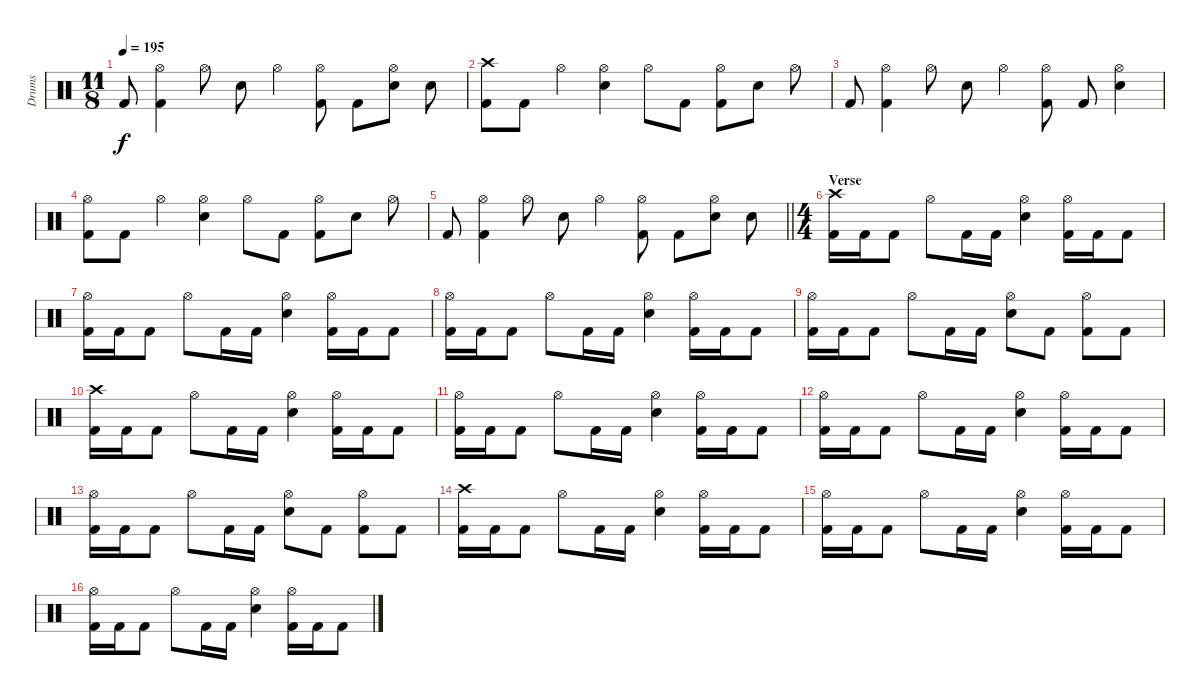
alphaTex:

\track ("Drums" "Drums") {instrument percussion}
\staff {score}
\articulation defaults
\ts (11 8)
\tempo 195
\clef neutral
\ks c "Kick (hit) 2".8{dy f}
("Hi-Hat (open)" "Kick (hit) 2").4 "Hi-Hat (open)".8 "Electric Snare (hit)".8 "Hi-Hat (open)".4 ("Hi-Hat (open)" "Kick (hit) 2").8 "Kick (hit) 2".8 ("Hi-Hat (open)" "Electric Snare (hit)").8 "Electric Snare (hit)".8 |
("Crash high (hit)" "Kick (hit) 2").8 "Kick (hit) 2".8 "Hi-Hat (open)".4 ("Hi-Hat (open)" "Electric Snare (hit)").4 "Hi-Hat (open)".8 "Kick (hit) 2".8 ("Hi-Hat (open)" "Kick (hit) 2").8 "Electric Snare (hit)".8 "Hi-Hat (open)".8 |
"Kick (hit) 2".8 ("Hi-Hat (open)" "Kick (hit) 2").4 "Hi-Hat (open)".8 "Electric Snare (hit)".8 "Hi-Hat (open)".4 ("Hi-Hat (open)" "Kick (hit) 2").8 "Kick (hit) 2".8 ("Hi-Hat (open)" "Electric Snare (hit)").4 |
("Hi-Hat (open)" "Kick (hit) 2").8 "Kick (hit) 2".8 "Hi-Hat (open)".4 ("Hi-Hat (open)" "Electric Snare (hit)").4 "Hi-Hat (open)".8 "Kick (hit) 2".8 ("Hi-Hat (open)" "Kick (hit) 2").8 "Electric Snare (hit)".8 "Hi-Hat (open)".8 |
\barLineRight lightlight "Kick (hit) 2".8
("Hi-Hat (open)" "Kick (hit) 2").4 "Hi-Hat (open)".8 "Electric Snare (hit)".8 "Hi-Hat (open)".4 ("Hi-Hat (open)" "Kick (hit) 2").8 "Kick (hit) 2".8 ("Hi-Hat (open)" "Electric Snare (hit)").8 "Electric Snare (hit)".8 |
\ts (4 4)
\section ("" "Verse")
("Crash high (hit)" "Kick (hit) 2").16 "Kick (hit) 2".16 "Kick (hit) 2".8 "Hi-Hat (open)".8 "Kick (hit) 2".16 "Kick (hit) 2".16 ("Hi-Hat (open)" "Electric Snare (hit)").4 ("Hi-Hat (open)" "Kick (hit) 2").16 "Kick (hit) 2".16 "Kick (hit) 2".8 |
("Hi-Hat (open)" "Kick (hit) 2").16 "Kick (hit) 2".16 "Kick (hit) 2".8 "Hi-Hat (open)".8 "Kick (hit) 2".16 "Kick (hit) 2".16 ("Hi-Hat (open)" "Electric Snare (hit)").4 ("Hi-Hat (open)" "Kick (hit) 2").16 "Kick (hit) 2".16 "Kick (hit) 2".8 |
("Hi-Hat (open)" "Kick (hit) 2").16 "Kick (hit) 2".16 "Kick (hit) 2".8 "Hi-Hat (open)".8 "Kick (hit) 2".16 "Kick (hit) 2".16 ("Hi-Hat (open)" "Electric Snare (hit)").4 ("Hi-Hat (open)" "Kick (hit) 2").16 "Kick (hit) 2".16 "Kick (hit) 2".8 |
("Hi-Hat (open)" "Kick (hit) 2").16 "Kick (hit) 2".16 "Kick (hit) 2".8 "Hi-Hat (open)".8 "Kick (hit) 2".16 "Kick (hit) 2".16 ("Hi-Hat (open)" "Electric Snare (hit)").8 "Kick (hit) 2".8 ("Hi-Hat (open)" "Kick (hit) 2").8 "Kick (hit) 2".8 |
("Crash high (hit)" "Kick (hit) 2").16 "Kick (hit) 2".16 "Kick (hit) 2".8 "Hi-Hat (open)".8 "Kick (hit) 2".16 "Kick (hit) 2".16 ("Hi-Hat (open)" "Electric Snare (hit)").4 ("Hi-Hat (open)" "Kick (hit) 2").16 "Kick (hit) 2".16 "Kick (hit) 2".8 |
("Hi-Hat (open)" "Kick (hit) 2").16 "Kick (hit) 2".16 "Kick (hit) 2".8 "Hi-Hat (open)".8 "Kick (hit) 2".16 "Kick (hit) 2".16 ("Hi-Hat (open)" "Electric Snare (hit)").4 ("Hi-Hat (open)" "Kick (hit) 2").16 "Kick (hit) 2".16 "Kick (hit) 2".8 |
("Hi-Hat (open)" "Kick (hit) 2").16 "Kick (hit) 2".16 "Kick (hit) 2".8 "Hi-Hat (open)".8 "Kick (hit) 2".16 "Kick (hit) 2".16 ("Hi-Hat (open)" "Electric Snare (hit)").4 ("Hi-Hat (open)" "Kick (hit) 2").16 "Kick (hit) 2".16 "Kick (hit) 2".8 |
("Hi-Hat (open)" "Kick (hit) 2").16 "Kick (hit) 2".16 "Kick (hit) 2".8 "Hi-Hat (open)".8 "Kick (hit) 2".16 "Kick (hit) 2".16 ("Hi-Hat (open)" "Electric Snare (hit)").8 "Kick (hit) 2".8 ("Hi-Hat (open)" "Kick (hit) 2").8 "Kick (hit) 2".8 |
("Crash high (hit)" "Kick (hit) 2").16 "Kick (hit) 2".16 "Kick (hit) 2".8 "Hi-Hat (open)".8 "Kick (hit) 2".16 "Kick (hit) 2".16 ("Hi-Hat (open)" "Electric Snare (hit)").4 ("Hi-Hat (open)" "Kick (hit) 2").16 "Kick (hit) 2".16 "Kick (hit) 2".8 |
("Hi-Hat (open)" "Kick (hit) 2").16 "Kick (hit) 2".16 "Kick (hit) 2".8 "Hi-Hat (open)".8 "Kick (hit) 2".16 "Kick (hit) 2".16 ("Hi-Hat (open)" "Electric Snare (hit)").4 ("Hi-Hat (open)" "Kick (hit) 2").16 "Kick (hit) 2".16 "Kick (hit) 2".8 |
("Hi-Hat (open)" "Kick (hit) 2").16 "Kick (hit) 2".16 "Kick (hit) 2".8 "Hi-Hat (open)".8 "Kick (hit) 2".16 "Kick (hit) 2".16 ("Hi-Hat (open)" "Electric Snare (hit)").4 ("Hi-Hat (open)" "Kick (hit) 2").16 "Kick (hit) 2".16 "Kick (hit) 2".8
